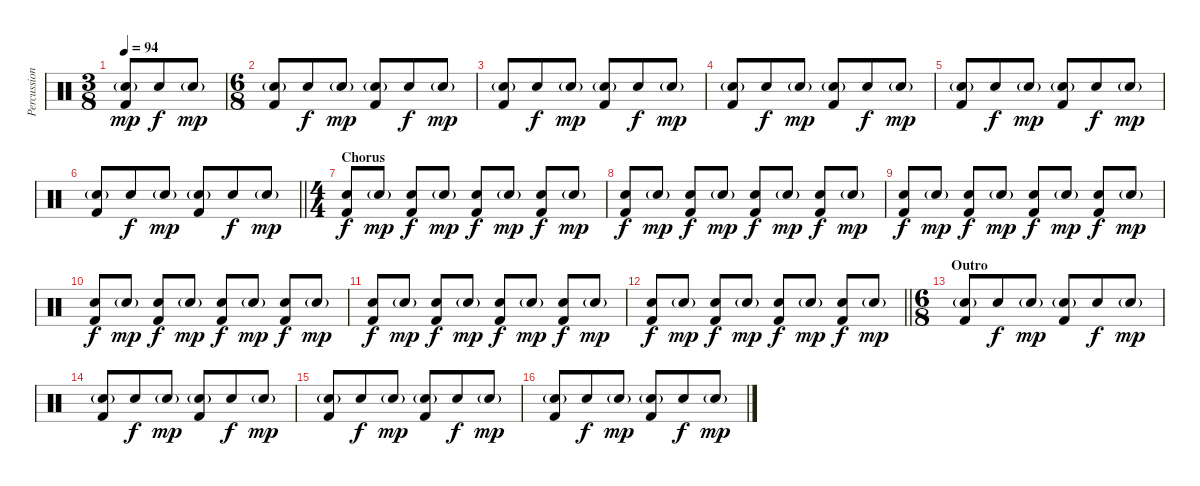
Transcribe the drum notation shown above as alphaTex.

\track ("Percussion" "Percussion") {instrument percussion}
\staff {score}
\articulation defaults
\ts (3 8)
\tempo 94
\clef neutral
\ks c
("Snare (hit) 2"{g} "Kick (hit) 2").8{dy mp} "Snare (hit) 2".8{dy f} "Snare (hit) 2"{g}.8{dy mp} |
\ts (6 8)
("Snare (hit) 2"{g} "Kick (hit) 2").8 "Snare (hit) 2".8{dy f} "Snare (hit) 2"{g}.8{dy mp} ("Snare (hit) 2"{g} "Kick (hit) 2").8 "Snare (hit) 2".8{dy f} "Snare (hit) 2"{g}.8{dy mp} |
("Snare (hit) 2"{g} "Kick (hit) 2").8 "Snare (hit) 2".8{dy f} "Snare (hit) 2"{g}.8{dy mp} ("Snare (hit) 2"{g} "Kick (hit) 2").8 "Snare (hit) 2".8{dy f} "Snare (hit) 2"{g}.8{dy mp} |
("Snare (hit) 2"{g} "Kick (hit) 2").8 "Snare (hit) 2".8{dy f} "Snare (hit) 2"{g}.8{dy mp} ("Snare (hit) 2"{g} "Kick (hit) 2").8 "Snare (hit) 2".8{dy f} "Snare (hit) 2"{g}.8{dy mp} |
("Snare (hit) 2"{g} "Kick (hit) 2").8 "Snare (hit) 2".8{dy f} "Snare (hit) 2"{g}.8{dy mp} ("Snare (hit) 2"{g} "Kick (hit) 2").8 "Snare (hit) 2".8{dy f} "Snare (hit) 2"{g}.8{dy mp} |
\barLineRight lightlight
("Snare (hit) 2"{g} "Kick (hit) 2").8 "Snare (hit) 2".8{dy f} "Snare (hit) 2"{g}.8{dy mp} ("Snare (hit) 2"{g} "Kick (hit) 2").8 "Snare (hit) 2".8{dy f} "Snare (hit) 2"{g}.8{dy mp} |
\ts (4 4)
\section ("" "Chorus")
("Snare (hit) 2" "Kick (hit) 2").8{dy f} "Snare (hit) 2"{g}.8{dy mp} ("Snare (hit) 2" "Kick (hit) 2").8{dy f} "Snare (hit) 2"{g}.8{dy mp} ("Snare (hit) 2" "Kick (hit) 2").8{dy f} "Snare (hit) 2"{g}.8{dy mp} ("Snare (hit) 2" "Kick (hit) 2").8{dy f} "Snare (hit) 2"{g}.8{dy mp} |
("Snare (hit) 2" "Kick (hit) 2").8{dy f} "Snare (hit) 2"{g}.8{dy mp} ("Snare (hit) 2" "Kick (hit) 2").8{dy f} "Snare (hit) 2"{g}.8{dy mp} ("Snare (hit) 2" "Kick (hit) 2").8{dy f} "Snare (hit) 2"{g}.8{dy mp} ("Snare (hit) 2" "Kick (hit) 2").8{dy f} "Snare (hit) 2"{g}.8{dy mp} |
("Snare (hit) 2" "Kick (hit) 2").8{dy f} "Snare (hit) 2"{g}.8{dy mp} ("Snare (hit) 2" "Kick (hit) 2").8{dy f} "Snare (hit) 2"{g}.8{dy mp} ("Snare (hit) 2" "Kick (hit) 2").8{dy f} "Snare (hit) 2"{g}.8{dy mp} ("Snare (hit) 2" "Kick (hit) 2").8{dy f} "Snare (hit) 2"{g}.8{dy mp} |
("Snare (hit) 2" "Kick (hit) 2").8{dy f} "Snare (hit) 2"{g}.8{dy mp} ("Snare (hit) 2" "Kick (hit) 2").8{dy f} "Snare (hit) 2"{g}.8{dy mp} ("Snare (hit) 2" "Kick (hit) 2").8{dy f} "Snare (hit) 2"{g}.8{dy mp} ("Snare (hit) 2" "Kick (hit) 2").8{dy f} "Snare (hit) 2"{g}.8{dy mp} |
("Snare (hit) 2" "Kick (hit) 2").8{dy f} "Snare (hit) 2"{g}.8{dy mp} ("Snare (hit) 2" "Kick (hit) 2").8{dy f} "Snare (hit) 2"{g}.8{dy mp} ("Snare (hit) 2" "Kick (hit) 2").8{dy f} "Snare (hit) 2"{g}.8{dy mp} ("Snare (hit) 2" "Kick (hit) 2").8{dy f} "Snare (hit) 2"{g}.8{dy mp} |
\barLineRight lightlight
("Snare (hit) 2" "Kick (hit) 2").8{dy f} "Snare (hit) 2"{g}.8{dy mp} ("Snare (hit) 2" "Kick (hit) 2").8{dy f} "Snare (hit) 2"{g}.8{dy mp} ("Snare (hit) 2" "Kick (hit) 2").8{dy f} "Snare (hit) 2"{g}.8{dy mp} ("Snare (hit) 2" "Kick (hit) 2").8{dy f} "Snare (hit) 2"{g}.8{dy mp} |
\ts (6 8)
\section ("" "Outro")
("Snare (hit) 2"{g} "Kick (hit) 2").8 "Snare (hit) 2".8{dy f} "Snare (hit) 2"{g}.8{dy mp} ("Snare (hit) 2"{g} "Kick (hit) 2").8 "Snare (hit) 2".8{dy f} "Snare (hit) 2"{g}.8{dy mp} |
("Snare (hit) 2"{g} "Kick (hit) 2").8 "Snare (hit) 2".8{dy f} "Snare (hit) 2"{g}.8{dy mp} ("Snare (hit) 2"{g} "Kick (hit) 2").8 "Snare (hit) 2".8{dy f} "Snare (hit) 2"{g}.8{dy mp} |
("Snare (hit) 2"{g} "Kick (hit) 2").8 "Snare (hit) 2".8{dy f} "Snare (hit) 2"{g}.8{dy mp} ("Snare (hit) 2"{g} "Kick (hit) 2").8 "Snare (hit) 2".8{dy f} "Snare (hit) 2"{g}.8{dy mp} |
("Snare (hit) 2"{g} "Kick (hit) 2").8 "Snare (hit) 2".8{dy f} "Snare (hit) 2"{g}.8{dy mp} ("Snare (hit) 2"{g} "Kick (hit) 2").8 "Snare (hit) 2".8{dy f} "Snare (hit) 2"{g}.8{dy mp}
